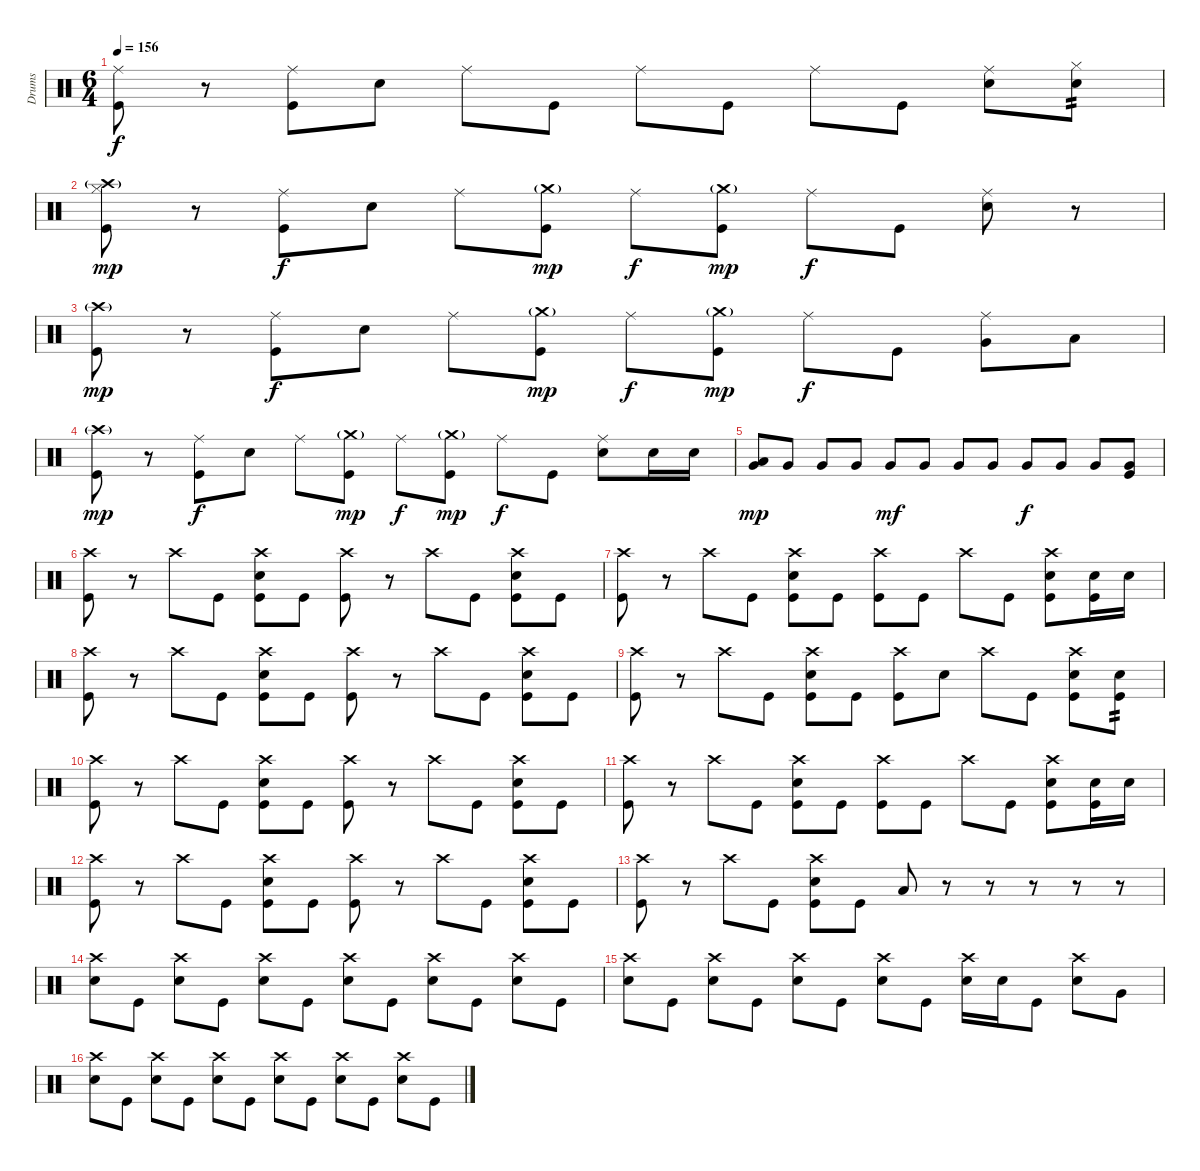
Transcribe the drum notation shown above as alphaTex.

\track ("Drums" "Drums") {instrument percussion}
\staff {score}
\articulation defaults
\ts (6 4)
\tempo 156
\clef neutral
\ks c
("Ride (middle)" "Kick (hit)").8{dy f} r.8 ("Ride (middle)" "Kick (hit)").8 "Electric Snare (hit)".8 "Ride (middle)".8 "Kick (hit)".8 "Ride (middle)".8 "Kick (hit)".8 "Ride (middle)".8 "Kick (hit)".8 ("Ride (middle)" "Electric Snare (hit)").8 ("Hi-Hat (closed)" "Electric Snare (hit)").8{tp 2} |
("Hi-Hat (closed)" "Crash high (hit)"{g} "Kick (hit)").8{dy mp} r.8 ("Ride (middle)" "Kick (hit)").8{dy f} "Electric Snare (hit)".8 "Ride (middle)".8 ("Crash medium (hit)"{g} "Kick (hit)").8{dy mp} "Ride (middle)".8{dy f} ("Crash medium (hit)"{g} "Kick (hit)").8{dy mp} "Ride (middle)".8{dy f} "Kick (hit)".8 ("Ride (middle)" "Electric Snare (hit)").8 r.8 |
("Crash high (hit)"{g} "Kick (hit)").8{dy mp} r.8 ("Ride (middle)" "Kick (hit)").8{dy f} "Electric Snare (hit)".8 "Ride (middle)".8 ("Crash medium (hit)"{g} "Kick (hit)").8{dy mp} "Ride (middle)".8{dy f} ("Crash medium (hit)"{g} "Kick (hit)").8{dy mp} "Ride (middle)".8{dy f} "Kick (hit)".8 ("Ride (middle)" "Very Low Tom (hit)").8 "Low Floor Tom (hit)".8 |
("Crash high (hit)"{g} "Kick (hit)").8{dy mp} r.8 ("Ride (middle)" "Kick (hit)").8{dy f} "Electric Snare (hit)".8 "Ride (middle)".8 ("Crash medium (hit)"{g} "Kick (hit)").8{dy mp} "Ride (middle)".8{dy f} ("Crash medium (hit)"{g} "Kick (hit)").8{dy mp} "Ride (middle)".8{dy f} "Kick (hit)".8 ("Ride (middle)" "Electric Snare (hit)").8 "Electric Snare (hit)".16 "Electric Snare (hit)".16 |
("Low Floor Tom (hit)" "Very Low Tom (hit)").8{dy mp} "Very Low Tom (hit)".8 "Very Low Tom (hit)".8 "Very Low Tom (hit)".8 "Very Low Tom (hit)".8{dy mf} "Very Low Tom (hit)".8 "Very Low Tom (hit)".8 "Very Low Tom (hit)".8 "Very Low Tom (hit)".8{dy f} "Very Low Tom (hit)".8 "Very Low Tom (hit)".8 ("Very Low Tom (hit)" "Kick (hit)").8 |
("Crash high (hit)" "Kick (hit)").8 r.8 "Crash high (hit)".8 "Kick (hit)".8 ("Crash high (hit)" "Electric Snare (hit)" "Kick (hit)").8 "Kick (hit)".8 ("Crash high (hit)" "Kick (hit)").8 r.8 "Crash high (hit)".8 "Kick (hit)".8 ("Crash high (hit)" "Electric Snare (hit)" "Kick (hit)").8 "Kick (hit)".8 |
("Crash high (hit)" "Kick (hit)").8 r.8 "Crash high (hit)".8 "Kick (hit)".8 ("Crash high (hit)" "Electric Snare (hit)" "Kick (hit)").8 "Kick (hit)".8 ("Crash high (hit)" "Kick (hit)").8 "Kick (hit)".8 "Crash high (hit)".8 "Kick (hit)".8 ("Crash high (hit)" "Electric Snare (hit)" "Kick (hit)").8 ("Electric Snare (hit)" "Kick (hit)").16 "Electric Snare (hit)".16 |
("Crash high (hit)" "Kick (hit)").8 r.8 "Crash high (hit)".8 "Kick (hit)".8 ("Crash high (hit)" "Electric Snare (hit)" "Kick (hit)").8 "Kick (hit)".8 ("Crash high (hit)" "Kick (hit)").8 r.8 "Crash high (hit)".8 "Kick (hit)".8 ("Crash high (hit)" "Electric Snare (hit)" "Kick (hit)").8 "Kick (hit)".8 |
("Crash high (hit)" "Kick (hit)").8 r.8 "Crash high (hit)".8 "Kick (hit)".8 ("Crash high (hit)" "Electric Snare (hit)" "Kick (hit)").8 "Kick (hit)".8 ("Crash high (hit)" "Kick (hit)").8 "Electric Snare (hit)".8 "Crash high (hit)".8 "Kick (hit)".8 ("Crash high (hit)" "Electric Snare (hit)" "Kick (hit)").8 ("Electric Snare (hit)" "Kick (hit)").8{tp 2} |
("Crash high (hit)" "Kick (hit)").8 r.8 "Crash high (hit)".8 "Kick (hit)".8 ("Crash high (hit)" "Electric Snare (hit)" "Kick (hit)").8 "Kick (hit)".8 ("Crash high (hit)" "Kick (hit)").8 r.8 "Crash high (hit)".8 "Kick (hit)".8 ("Crash high (hit)" "Electric Snare (hit)" "Kick (hit)").8 "Kick (hit)".8 |
("Crash high (hit)" "Kick (hit)").8 r.8 "Crash high (hit)".8 "Kick (hit)".8 ("Crash high (hit)" "Electric Snare (hit)" "Kick (hit)").8 "Kick (hit)".8 ("Crash high (hit)" "Kick (hit)").8 "Kick (hit)".8 "Crash high (hit)".8 "Kick (hit)".8 ("Crash high (hit)" "Electric Snare (hit)" "Kick (hit)").8 ("Electric Snare (hit)" "Kick (hit)").16 "Electric Snare (hit)".16 |
("Crash high (hit)" "Kick (hit)").8 r.8 "Crash high (hit)".8 "Kick (hit)".8 ("Crash high (hit)" "Electric Snare (hit)" "Kick (hit)").8 "Kick (hit)".8 ("Crash high (hit)" "Kick (hit)").8 r.8 "Crash high (hit)".8 "Kick (hit)".8 ("Crash high (hit)" "Electric Snare (hit)" "Kick (hit)").8 "Kick (hit)".8 |
("Crash high (hit)" "Kick (hit)").8 r.8 "Crash high (hit)".8 "Kick (hit)".8 ("Crash high (hit)" "Electric Snare (hit)" "Kick (hit)").8 "Kick (hit)".8 "Low Floor Tom (hit)".8 r.8 r.8 r.8 r.8 r.8 |
("Crash high (hit)" "Electric Snare (hit)").8 "Kick (hit)".8 ("Crash high (hit)" "Electric Snare (hit)").8 "Kick (hit)".8 ("Crash high (hit)" "Electric Snare (hit)").8 "Kick (hit)".8 ("Crash high (hit)" "Electric Snare (hit)").8 "Kick (hit)".8 ("Crash high (hit)" "Electric Snare (hit)").8 "Kick (hit)".8 ("Crash high (hit)" "Electric Snare (hit)").8 "Kick (hit)".8 |
("Crash high (hit)" "Electric Snare (hit)").8 "Kick (hit)".8 ("Crash high (hit)" "Electric Snare (hit)").8 "Kick (hit)".8 ("Crash high (hit)" "Electric Snare (hit)").8 "Kick (hit)".8 ("Crash high (hit)" "Electric Snare (hit)").8 "Kick (hit)".8 ("Crash high (hit)" "Electric Snare (hit)").16 "Electric Snare (hit)".16 "Kick (hit)".8 ("Crash high (hit)" "Electric Snare (hit)").8 "Very Low Tom (hit)".8 |
("Crash high (hit)" "Electric Snare (hit)").8 "Kick (hit)".8 ("Crash high (hit)" "Electric Snare (hit)").8 "Kick (hit)".8 ("Crash high (hit)" "Electric Snare (hit)").8 "Kick (hit)".8 ("Crash high (hit)" "Electric Snare (hit)").8 "Kick (hit)".8 ("Crash high (hit)" "Electric Snare (hit)").8 "Kick (hit)".8 ("Crash high (hit)" "Electric Snare (hit)").8 "Kick (hit)".8
